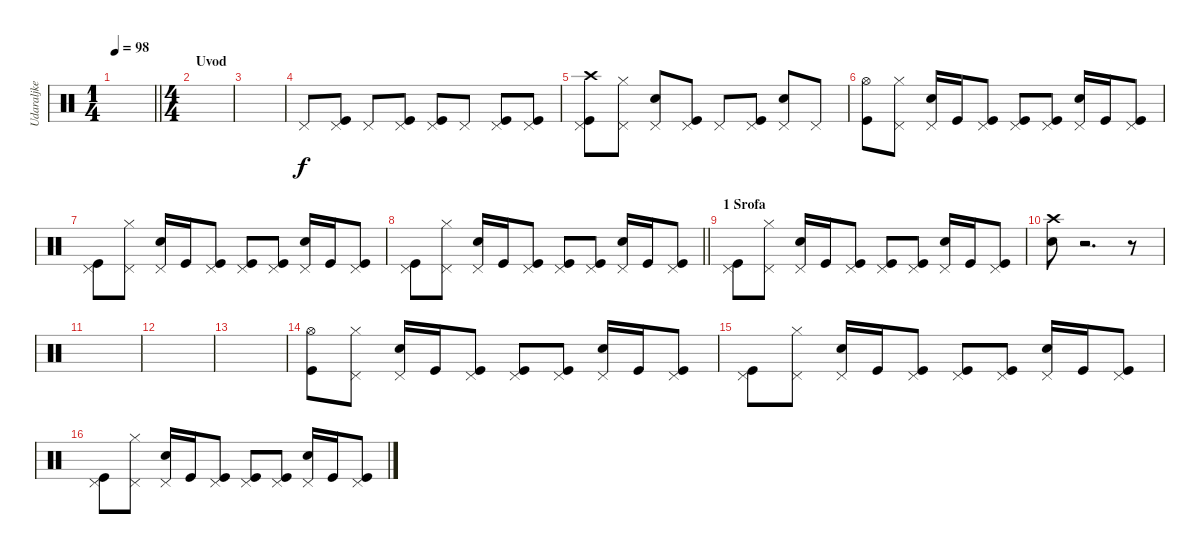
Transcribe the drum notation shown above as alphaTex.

\track ("Udaraljke" "Udaraljke") {instrument percussion}
\staff {score}
\articulation defaults
\ts (1 4)
\tempo 98
\clef neutral
\barLineRight lightlight
\ks c
|
\ts (4 4)
\section ("" "Uvod")
|
|
"Pedal Hi-Hat (hit)".8 ("Pedal Hi-Hat (hit)" "Kick (hit)").8 "Pedal Hi-Hat (hit)".8 ("Pedal Hi-Hat (hit)" "Kick (hit)").8 ("Pedal Hi-Hat (hit)" "Kick (hit)").8 "Pedal Hi-Hat (hit)".8 ("Pedal Hi-Hat (hit)" "Kick (hit)").8 ("Pedal Hi-Hat (hit)" "Kick (hit)").8 |
("Pedal Hi-Hat (hit)" "Crash high (hit)" "Kick (hit)").8 ("Pedal Hi-Hat (hit)" "Hi-Hat (closed)").8 ("Pedal Hi-Hat (hit)" "Electric Snare (hit)").8 ("Pedal Hi-Hat (hit)" "Kick (hit)").8 "Pedal Hi-Hat (hit)".8 ("Pedal Hi-Hat (hit)" "Kick (hit)").8 ("Pedal Hi-Hat (hit)" "Electric Snare (hit)").8 "Pedal Hi-Hat (hit)".8 |
("Hi-Hat (open)" "Kick (hit)").8 ("Pedal Hi-Hat (hit)" "Hi-Hat (closed)").8 ("Pedal Hi-Hat (hit)" "Electric Snare (hit)").16 "Kick (hit)".16 ("Pedal Hi-Hat (hit)" "Kick (hit)").8 ("Pedal Hi-Hat (hit)" "Kick (hit)").8 ("Pedal Hi-Hat (hit)" "Kick (hit)").8 ("Pedal Hi-Hat (hit)" "Electric Snare (hit)").16 "Kick (hit)".16 ("Pedal Hi-Hat (hit)" "Kick (hit)").8 |
("Pedal Hi-Hat (hit)" "Kick (hit)").8 ("Pedal Hi-Hat (hit)" "Hi-Hat (closed)").8 ("Pedal Hi-Hat (hit)" "Electric Snare (hit)").16 "Kick (hit)".16 ("Pedal Hi-Hat (hit)" "Kick (hit)").8 ("Pedal Hi-Hat (hit)" "Kick (hit)").8 ("Pedal Hi-Hat (hit)" "Kick (hit)").8 ("Pedal Hi-Hat (hit)" "Electric Snare (hit)").16 "Kick (hit)".16 ("Pedal Hi-Hat (hit)" "Kick (hit)").8 |
\barLineRight lightlight
("Pedal Hi-Hat (hit)" "Kick (hit)").8 ("Pedal Hi-Hat (hit)" "Hi-Hat (closed)").8 ("Pedal Hi-Hat (hit)" "Electric Snare (hit)").16 "Kick (hit)".16 ("Pedal Hi-Hat (hit)" "Kick (hit)").8 ("Pedal Hi-Hat (hit)" "Kick (hit)").8 ("Pedal Hi-Hat (hit)" "Kick (hit)").8 ("Pedal Hi-Hat (hit)" "Electric Snare (hit)").16 "Kick (hit)".16 ("Pedal Hi-Hat (hit)" "Kick (hit)").8 |
\section ("" "1 Srofa")
("Pedal Hi-Hat (hit)" "Kick (hit)").8 ("Pedal Hi-Hat (hit)" "Hi-Hat (closed)").8 ("Pedal Hi-Hat (hit)" "Electric Snare (hit)").16 "Kick (hit)".16 ("Pedal Hi-Hat (hit)" "Kick (hit)").8 ("Pedal Hi-Hat (hit)" "Kick (hit)").8 ("Pedal Hi-Hat (hit)" "Kick (hit)").8 ("Pedal Hi-Hat (hit)" "Electric Snare (hit)").16 "Kick (hit)".16 ("Pedal Hi-Hat (hit)" "Kick (hit)").8 |
("Crash high (hit)" "Electric Snare (hit)").8 r.2{d} r.8 |
|
|
|
("Hi-Hat (open)" "Kick (hit)").8 ("Pedal Hi-Hat (hit)" "Hi-Hat (closed)").8 ("Pedal Hi-Hat (hit)" "Electric Snare (hit)").16 "Kick (hit)".16 ("Pedal Hi-Hat (hit)" "Kick (hit)").8 ("Pedal Hi-Hat (hit)" "Kick (hit)").8 ("Pedal Hi-Hat (hit)" "Kick (hit)").8 ("Pedal Hi-Hat (hit)" "Electric Snare (hit)").16 "Kick (hit)".16 ("Pedal Hi-Hat (hit)" "Kick (hit)").8 |
("Pedal Hi-Hat (hit)" "Kick (hit)").8 ("Pedal Hi-Hat (hit)" "Hi-Hat (closed)").8 ("Pedal Hi-Hat (hit)" "Electric Snare (hit)").16 "Kick (hit)".16 ("Pedal Hi-Hat (hit)" "Kick (hit)").8 ("Pedal Hi-Hat (hit)" "Kick (hit)").8 ("Pedal Hi-Hat (hit)" "Kick (hit)").8 ("Pedal Hi-Hat (hit)" "Electric Snare (hit)").16 "Kick (hit)".16 ("Pedal Hi-Hat (hit)" "Kick (hit)").8 |
("Pedal Hi-Hat (hit)" "Kick (hit)").8 ("Pedal Hi-Hat (hit)" "Hi-Hat (closed)").8 ("Pedal Hi-Hat (hit)" "Electric Snare (hit)").16 "Kick (hit)".16 ("Pedal Hi-Hat (hit)" "Kick (hit)").8 ("Pedal Hi-Hat (hit)" "Kick (hit)").8 ("Pedal Hi-Hat (hit)" "Kick (hit)").8 ("Pedal Hi-Hat (hit)" "Electric Snare (hit)").16 "Kick (hit)".16 ("Pedal Hi-Hat (hit)" "Kick (hit)").8
